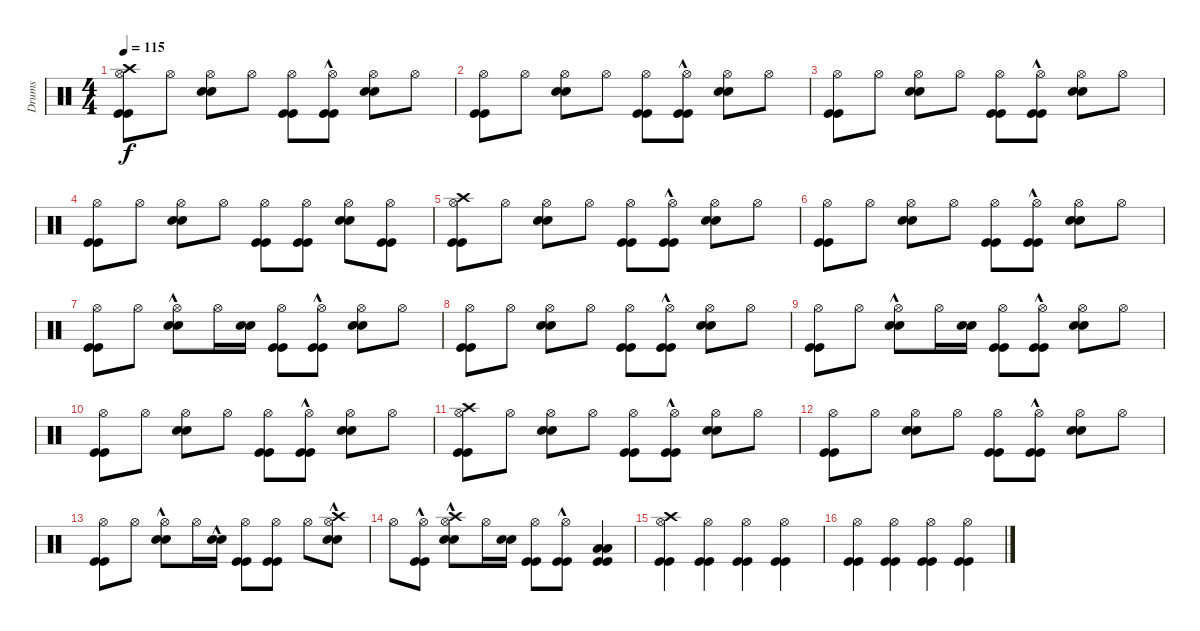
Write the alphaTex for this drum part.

\track ("Drums" "Drums") {instrument percussion}
\staff {score}
\articulation defaults
\ts (4 4)
\tempo 115
\clef neutral
\ks c
("Kick (hit)" "Kick (hit)" "Hi-Hat (open)" "Crash high (hit)").8{dy f} "Hi-Hat (open)".8 ("Snare (hit) 2" "Snare (hit) 2" "Hi-Hat (open)").8 "Hi-Hat (open)".8 ("Kick (hit)" "Kick (hit)" "Hi-Hat (open)").8 ("Kick (hit)"{hac} "Kick (hit)"{hac} "Hi-Hat (open)").8 ("Snare (hit) 2" "Snare (hit) 2" "Hi-Hat (open)").8 "Hi-Hat (open)".8 |
("Kick (hit)" "Kick (hit)" "Hi-Hat (open)").8 "Hi-Hat (open)".8 ("Snare (hit) 2" "Snare (hit) 2" "Hi-Hat (open)").8 "Hi-Hat (open)".8 ("Kick (hit)" "Kick (hit)" "Hi-Hat (open)").8 ("Kick (hit)"{hac} "Kick (hit)"{hac} "Hi-Hat (open)").8 ("Snare (hit) 2" "Snare (hit) 2" "Hi-Hat (open)").8 "Hi-Hat (open)".8 |
("Kick (hit)" "Kick (hit)" "Hi-Hat (open)").8 "Hi-Hat (open)".8 ("Snare (hit) 2" "Snare (hit) 2" "Hi-Hat (open)").8 "Hi-Hat (open)".8 ("Kick (hit)" "Kick (hit)" "Hi-Hat (open)").8 ("Kick (hit)"{hac} "Kick (hit)"{hac} "Hi-Hat (open)").8 ("Snare (hit) 2" "Snare (hit) 2" "Hi-Hat (open)").8 "Hi-Hat (open)".8 |
("Kick (hit)" "Kick (hit)" "Hi-Hat (open)").8 "Hi-Hat (open)".8 ("Snare (hit) 2" "Snare (hit) 2" "Hi-Hat (open)").8 "Hi-Hat (open)".8 ("Kick (hit)" "Kick (hit)" "Hi-Hat (open)").8 ("Kick (hit)" "Kick (hit)" "Hi-Hat (open)").8 ("Snare (hit) 2" "Snare (hit) 2" "Hi-Hat (open)").8 ("Kick (hit)" "Kick (hit)" "Hi-Hat (open)").8 |
("Kick (hit)" "Kick (hit)" "Hi-Hat (open)" "Crash high (hit)").8 "Hi-Hat (open)".8 ("Snare (hit) 2" "Snare (hit) 2" "Hi-Hat (open)").8 "Hi-Hat (open)".8 ("Kick (hit)" "Kick (hit)" "Hi-Hat (open)").8 ("Kick (hit)"{hac} "Kick (hit)"{hac} "Hi-Hat (open)").8 ("Snare (hit) 2" "Snare (hit) 2" "Hi-Hat (open)").8 "Hi-Hat (open)".8 |
("Kick (hit)" "Kick (hit)" "Hi-Hat (open)").8 "Hi-Hat (open)".8 ("Snare (hit) 2" "Snare (hit) 2" "Hi-Hat (open)").8 "Hi-Hat (open)".8 ("Kick (hit)" "Kick (hit)" "Hi-Hat (open)").8 ("Kick (hit)"{hac} "Kick (hit)"{hac} "Hi-Hat (open)").8 ("Snare (hit) 2" "Snare (hit) 2" "Hi-Hat (open)").8 "Hi-Hat (open)".8 |
("Kick (hit)" "Kick (hit)" "Hi-Hat (open)").8 "Hi-Hat (open)".8 ("Snare (hit) 2"{hac} "Snare (hit) 2"{hac} "Hi-Hat (open)").8 "Hi-Hat (open)".16 ("Snare (hit) 2" "Snare (hit) 2").16 ("Kick (hit)" "Kick (hit)" "Hi-Hat (open)").8 ("Kick (hit)"{hac} "Kick (hit)"{hac} "Hi-Hat (open)").8 ("Snare (hit) 2" "Snare (hit) 2" "Hi-Hat (open)").8 "Hi-Hat (open)".8 |
("Kick (hit)" "Kick (hit)" "Hi-Hat (open)").8 "Hi-Hat (open)".8 ("Snare (hit) 2" "Snare (hit) 2" "Hi-Hat (open)").8 "Hi-Hat (open)".8 ("Kick (hit)" "Kick (hit)" "Hi-Hat (open)").8 ("Kick (hit)"{hac} "Kick (hit)"{hac} "Hi-Hat (open)").8 ("Snare (hit) 2" "Snare (hit) 2" "Hi-Hat (open)").8 "Hi-Hat (open)".8 |
("Kick (hit)" "Kick (hit)" "Hi-Hat (open)").8 "Hi-Hat (open)".8 ("Snare (hit) 2"{hac} "Snare (hit) 2"{hac} "Hi-Hat (open)").8 "Hi-Hat (open)".16 ("Snare (hit) 2" "Snare (hit) 2").16 ("Kick (hit)" "Kick (hit)" "Hi-Hat (open)").8 ("Kick (hit)"{hac} "Kick (hit)"{hac} "Hi-Hat (open)").8 ("Snare (hit) 2" "Snare (hit) 2" "Hi-Hat (open)").8 "Hi-Hat (open)".8 |
("Kick (hit)" "Kick (hit)" "Hi-Hat (open)").8 "Hi-Hat (open)".8 ("Snare (hit) 2" "Snare (hit) 2" "Hi-Hat (open)").8 "Hi-Hat (open)".8 ("Kick (hit)" "Kick (hit)" "Hi-Hat (open)").8 ("Kick (hit)"{hac} "Kick (hit)"{hac} "Hi-Hat (open)").8 ("Snare (hit) 2" "Snare (hit) 2" "Hi-Hat (open)").8 "Hi-Hat (open)".8 |
("Kick (hit)" "Kick (hit)" "Hi-Hat (open)" "Crash high (hit)").8 "Hi-Hat (open)".8 ("Snare (hit) 2" "Snare (hit) 2" "Hi-Hat (open)").8 "Hi-Hat (open)".8 ("Kick (hit)" "Kick (hit)" "Hi-Hat (open)").8 ("Kick (hit)"{hac} "Kick (hit)"{hac} "Hi-Hat (open)").8 ("Snare (hit) 2" "Snare (hit) 2" "Hi-Hat (open)").8 "Hi-Hat (open)".8 |
("Kick (hit)" "Kick (hit)" "Hi-Hat (open)").8 "Hi-Hat (open)".8 ("Snare (hit) 2" "Snare (hit) 2" "Hi-Hat (open)").8 "Hi-Hat (open)".8 ("Kick (hit)" "Kick (hit)" "Hi-Hat (open)").8 ("Kick (hit)"{hac} "Kick (hit)"{hac} "Hi-Hat (open)").8 ("Snare (hit) 2" "Snare (hit) 2" "Hi-Hat (open)").8 "Hi-Hat (open)".8 |
("Kick (hit)" "Kick (hit)" "Hi-Hat (open)").8 "Hi-Hat (open)".8 ("Snare (hit) 2"{hac} "Snare (hit) 2"{hac} "Hi-Hat (open)").8 "Hi-Hat (open)".16 ("Snare (hit) 2"{hac} "Snare (hit) 2"{hac}).16 ("Kick (hit)" "Kick (hit)" "Hi-Hat (open)").8 ("Kick (hit)" "Kick (hit)" "Hi-Hat (open)").8 "Hi-Hat (open)".8 ("Snare (hit) 2"{hac} "Snare (hit) 2"{hac} "Hi-Hat (open)" "Crash high (hit)"{hac}).8 |
"Hi-Hat (open)".8 ("Kick (hit)"{hac} "Kick (hit)"{hac} "Hi-Hat (open)").8 ("Snare (hit) 2"{hac} "Snare (hit) 2"{hac} "Hi-Hat (open)" "Crash high (hit)"{hac}).8 "Hi-Hat (open)".16 ("Snare (hit) 2" "Snare (hit) 2").16 ("Kick (hit)" "Kick (hit)" "Hi-Hat (open)").8 ("Kick (hit)" "Kick (hit)" "Hi-Hat (open)"{hac}).8 ("Kick (hit)" "Kick (hit)" "Low Floor Tom (hit)" "Low Floor Tom (hit)").4 |
("Kick (hit)" "Kick (hit)" "Hi-Hat (open)" "Crash high (hit)").4 ("Kick (hit)" "Kick (hit)" "Hi-Hat (open)").4 ("Kick (hit)" "Kick (hit)" "Hi-Hat (open)").4 ("Kick (hit)" "Kick (hit)" "Hi-Hat (open)").4 |
("Kick (hit)" "Kick (hit)" "Hi-Hat (open)").4 ("Kick (hit)" "Kick (hit)" "Hi-Hat (open)").4 ("Kick (hit)" "Kick (hit)" "Hi-Hat (open)").4 ("Kick (hit)" "Kick (hit)" "Hi-Hat (open)").4
